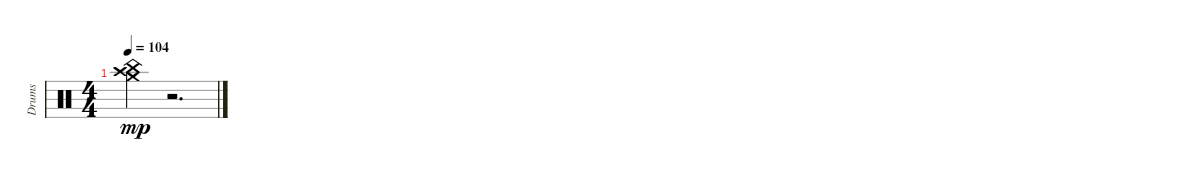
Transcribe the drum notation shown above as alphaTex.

\track ("Drums" "Drums") {instrument percussion}
\staff {score}
\articulation defaults
\ts (4 4)
\tempo 104
\clef neutral
\ks c
("China (hit)" "Crash high (hit)" "Crash medium (hit)").4{dy mp} r.2{d}
